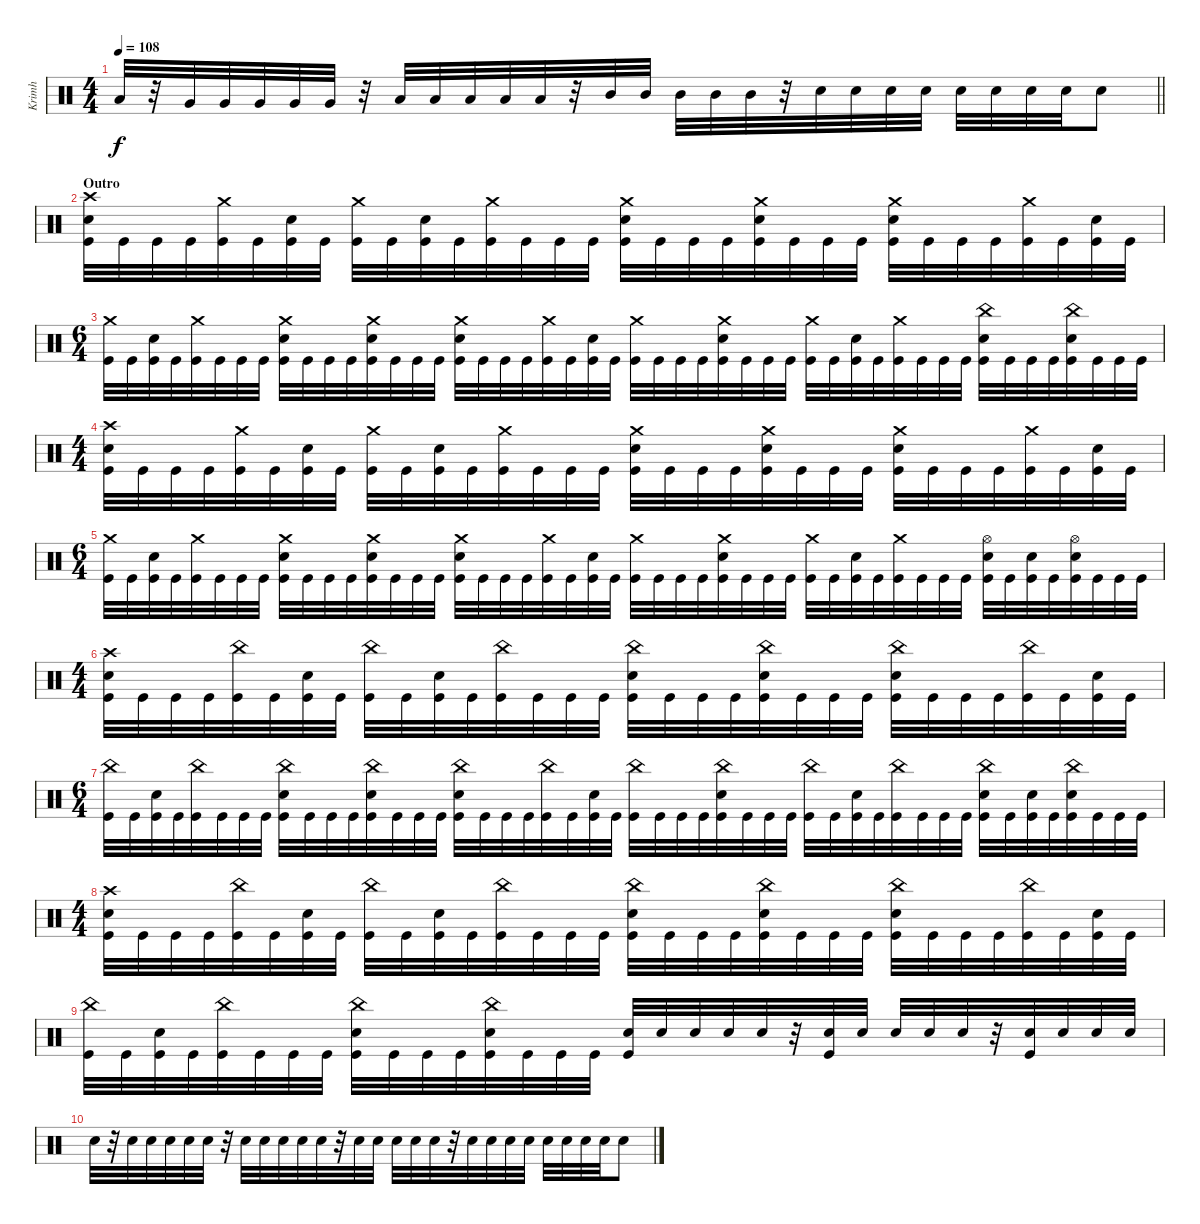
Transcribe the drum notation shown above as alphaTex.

\track ("Krimh" "Krimh") {instrument percussion}
\staff {score}
\articulation defaults
\ts (4 4)
\tempo 108
\clef neutral
\barLineRight lightlight
\ks c "Low Tom (hit)".32{dy f}
r.32 "Very Low Tom (hit)".32 "Very Low Tom (hit)".32 "Very Low Tom (hit)".32 "Very Low Tom (hit)".32 "Very Low Tom (hit)".32 r.32 "Low Tom (hit)".32 "Low Tom (hit)".32 "Low Tom (hit)".32 "Low Tom (hit)".32 "Low Tom (hit)".32 r.32 "Mid Tom (hit)".32 "Mid Tom (hit)".32 "Mid Tom (hit)".32 "Mid Tom (hit)".32 "Mid Tom (hit)".32 r.32 "Electric Snare (hit)".32 "Electric Snare (hit)".32 "Electric Snare (hit)".32 "Electric Snare (hit)".32 "Electric Snare (hit)".32 "Electric Snare (hit)".32 "Electric Snare (hit)".32 "Electric Snare (hit)".32 "Electric Snare (hit)".8 |
\section ("" "Outro")
("Crash high (hit)" "Electric Snare (hit)" "Kick (hit)").32 "Kick (hit)".32 "Kick (hit)".32 "Kick (hit)".32 ("Crash medium (hit)" "Kick (hit)").32 "Kick (hit)".32 ("Electric Snare (hit)" "Kick (hit)").32 "Kick (hit)".32 ("Crash medium (hit)" "Kick (hit)").32 "Kick (hit)".32 ("Electric Snare (hit)" "Kick (hit)").32 "Kick (hit)".32 ("Crash medium (hit)" "Kick (hit)").32 "Kick (hit)".32 "Kick (hit)".32 "Kick (hit)".32 ("Crash medium (hit)" "Electric Snare (hit)" "Kick (hit)").32 "Kick (hit)".32 "Kick (hit)".32 "Kick (hit)".32 ("Crash medium (hit)" "Electric Snare (hit)" "Kick (hit)").32 "Kick (hit)".32 "Kick (hit)".32 "Kick (hit)".32 ("Crash medium (hit)" "Electric Snare (hit)" "Kick (hit)").32 "Kick (hit)".32 "Kick (hit)".32 "Kick (hit)".32 ("Crash medium (hit)" "Kick (hit)").32 "Kick (hit)".32 ("Electric Snare (hit)" "Kick (hit)").32 "Kick (hit)".32 |
\ts (6 4)
("Crash medium (hit)" "Kick (hit)").32 "Kick (hit)".32 ("Electric Snare (hit)" "Kick (hit)").32 "Kick (hit)".32 ("Crash medium (hit)" "Kick (hit)").32 "Kick (hit)".32 "Kick (hit)".32 "Kick (hit)".32 ("Crash medium (hit)" "Electric Snare (hit)" "Kick (hit)").32 "Kick (hit)".32 "Kick (hit)".32 "Kick (hit)".32 ("Crash medium (hit)" "Electric Snare (hit)" "Kick (hit)").32 "Kick (hit)".32 "Kick (hit)".32 "Kick (hit)".32 ("Crash medium (hit)" "Electric Snare (hit)" "Kick (hit)").32 "Kick (hit)".32 "Kick (hit)".32 "Kick (hit)".32 ("Crash medium (hit)" "Kick (hit)").32 "Kick (hit)".32 ("Electric Snare (hit)" "Kick (hit)").32 "Kick (hit)".32 ("Crash medium (hit)" "Kick (hit)").32 "Kick (hit)".32 "Kick (hit)".32 "Kick (hit)".32 ("Crash medium (hit)" "Electric Snare (hit)" "Kick (hit)").32 "Kick (hit)".32 "Kick (hit)".32 "Kick (hit)".32 ("Crash medium (hit)" "Kick (hit)").32 "Kick (hit)".32 ("Electric Snare (hit)" "Kick (hit)").32 "Kick (hit)".32 ("Crash medium (hit)" "Kick (hit)").32 "Kick (hit)".32 "Kick (hit)".32 "Kick (hit)".32 ("China (hit)" "Electric Snare (hit)" "Kick (hit)").32 "Kick (hit)".32 "Kick (hit)".32 "Kick (hit)".32 ("China (hit)" "Electric Snare (hit)" "Kick (hit)").32 "Kick (hit)".32 "Kick (hit)".32 "Kick (hit)".32 |
\ts (4 4)
("Crash high (hit)" "Electric Snare (hit)" "Kick (hit)").32 "Kick (hit)".32 "Kick (hit)".32 "Kick (hit)".32 ("Crash medium (hit)" "Kick (hit)").32 "Kick (hit)".32 ("Electric Snare (hit)" "Kick (hit)").32 "Kick (hit)".32 ("Crash medium (hit)" "Kick (hit)").32 "Kick (hit)".32 ("Electric Snare (hit)" "Kick (hit)").32 "Kick (hit)".32 ("Crash medium (hit)" "Kick (hit)").32 "Kick (hit)".32 "Kick (hit)".32 "Kick (hit)".32 ("Crash medium (hit)" "Electric Snare (hit)" "Kick (hit)").32 "Kick (hit)".32 "Kick (hit)".32 "Kick (hit)".32 ("Crash medium (hit)" "Electric Snare (hit)" "Kick (hit)").32 "Kick (hit)".32 "Kick (hit)".32 "Kick (hit)".32 ("Crash medium (hit)" "Electric Snare (hit)" "Kick (hit)").32 "Kick (hit)".32 "Kick (hit)".32 "Kick (hit)".32 ("Crash medium (hit)" "Kick (hit)").32 "Kick (hit)".32 ("Electric Snare (hit)" "Kick (hit)").32 "Kick (hit)".32 |
\ts (6 4)
("Crash medium (hit)" "Kick (hit)").32 "Kick (hit)".32 ("Electric Snare (hit)" "Kick (hit)").32 "Kick (hit)".32 ("Crash medium (hit)" "Kick (hit)").32 "Kick (hit)".32 "Kick (hit)".32 "Kick (hit)".32 ("Crash medium (hit)" "Electric Snare (hit)" "Kick (hit)").32 "Kick (hit)".32 "Kick (hit)".32 "Kick (hit)".32 ("Crash medium (hit)" "Electric Snare (hit)" "Kick (hit)").32 "Kick (hit)".32 "Kick (hit)".32 "Kick (hit)".32 ("Crash medium (hit)" "Electric Snare (hit)" "Kick (hit)").32 "Kick (hit)".32 "Kick (hit)".32 "Kick (hit)".32 ("Crash medium (hit)" "Kick (hit)").32 "Kick (hit)".32 ("Electric Snare (hit)" "Kick (hit)").32 "Kick (hit)".32 ("Crash medium (hit)" "Kick (hit)").32 "Kick (hit)".32 "Kick (hit)".32 "Kick (hit)".32 ("Crash medium (hit)" "Electric Snare (hit)" "Kick (hit)").32 "Kick (hit)".32 "Kick (hit)".32 "Kick (hit)".32 ("Crash medium (hit)" "Kick (hit)").32 "Kick (hit)".32 ("Electric Snare (hit)" "Kick (hit)").32 "Kick (hit)".32 ("Crash medium (hit)" "Kick (hit)").32 "Kick (hit)".32 "Kick (hit)".32 "Kick (hit)".32 ("Hi-Hat (open)" "Electric Snare (hit)" "Kick (hit)").32 "Kick (hit)".32 ("Electric Snare (hit)" "Kick (hit)").32 "Kick (hit)".32 ("Hi-Hat (open)" "Electric Snare (hit)" "Kick (hit)").32 "Kick (hit)".32 "Kick (hit)".32 "Kick (hit)".32 |
\ts (4 4)
("Crash high (hit)" "Electric Snare (hit)" "Kick (hit)").32 "Kick (hit)".32 "Kick (hit)".32 "Kick (hit)".32 ("China (hit)" "Kick (hit)").32 "Kick (hit)".32 ("Electric Snare (hit)" "Kick (hit)").32 "Kick (hit)".32 ("China (hit)" "Kick (hit)").32 "Kick (hit)".32 ("Electric Snare (hit)" "Kick (hit)").32 "Kick (hit)".32 ("China (hit)" "Kick (hit)").32 "Kick (hit)".32 "Kick (hit)".32 "Kick (hit)".32 ("China (hit)" "Electric Snare (hit)" "Kick (hit)").32 "Kick (hit)".32 "Kick (hit)".32 "Kick (hit)".32 ("China (hit)" "Electric Snare (hit)" "Kick (hit)").32 "Kick (hit)".32 "Kick (hit)".32 "Kick (hit)".32 ("China (hit)" "Electric Snare (hit)" "Kick (hit)").32 "Kick (hit)".32 "Kick (hit)".32 "Kick (hit)".32 ("China (hit)" "Kick (hit)").32 "Kick (hit)".32 ("Electric Snare (hit)" "Kick (hit)").32 "Kick (hit)".32 |
\ts (6 4)
("China (hit)" "Kick (hit)").32 "Kick (hit)".32 ("Electric Snare (hit)" "Kick (hit)").32 "Kick (hit)".32 ("China (hit)" "Kick (hit)").32 "Kick (hit)".32 "Kick (hit)".32 "Kick (hit)".32 ("China (hit)" "Electric Snare (hit)" "Kick (hit)").32 "Kick (hit)".32 "Kick (hit)".32 "Kick (hit)".32 ("China (hit)" "Electric Snare (hit)" "Kick (hit)").32 "Kick (hit)".32 "Kick (hit)".32 "Kick (hit)".32 ("China (hit)" "Electric Snare (hit)" "Kick (hit)").32 "Kick (hit)".32 "Kick (hit)".32 "Kick (hit)".32 ("China (hit)" "Kick (hit)").32 "Kick (hit)".32 ("Electric Snare (hit)" "Kick (hit)").32 "Kick (hit)".32 ("China (hit)" "Kick (hit)").32 "Kick (hit)".32 "Kick (hit)".32 "Kick (hit)".32 ("China (hit)" "Electric Snare (hit)" "Kick (hit)").32 "Kick (hit)".32 "Kick (hit)".32 "Kick (hit)".32 ("China (hit)" "Kick (hit)").32 "Kick (hit)".32 ("Electric Snare (hit)" "Kick (hit)").32 "Kick (hit)".32 ("China (hit)" "Kick (hit)").32 "Kick (hit)".32 "Kick (hit)".32 "Kick (hit)".32 ("China (hit)" "Electric Snare (hit)" "Kick (hit)").32 "Kick (hit)".32 ("Electric Snare (hit)" "Kick (hit)").32 "Kick (hit)".32 ("China (hit)" "Electric Snare (hit)" "Kick (hit)").32 "Kick (hit)".32 "Kick (hit)".32 "Kick (hit)".32 |
\ts (4 4)
("Crash high (hit)" "Electric Snare (hit)" "Kick (hit)").32 "Kick (hit)".32 "Kick (hit)".32 "Kick (hit)".32 ("China (hit)" "Kick (hit)").32 "Kick (hit)".32 ("Electric Snare (hit)" "Kick (hit)").32 "Kick (hit)".32 ("China (hit)" "Kick (hit)").32 "Kick (hit)".32 ("Electric Snare (hit)" "Kick (hit)").32 "Kick (hit)".32 ("China (hit)" "Kick (hit)").32 "Kick (hit)".32 "Kick (hit)".32 "Kick (hit)".32 ("China (hit)" "Electric Snare (hit)" "Kick (hit)").32 "Kick (hit)".32 "Kick (hit)".32 "Kick (hit)".32 ("China (hit)" "Electric Snare (hit)" "Kick (hit)").32 "Kick (hit)".32 "Kick (hit)".32 "Kick (hit)".32 ("China (hit)" "Electric Snare (hit)" "Kick (hit)").32 "Kick (hit)".32 "Kick (hit)".32 "Kick (hit)".32 ("China (hit)" "Kick (hit)").32 "Kick (hit)".32 ("Electric Snare (hit)" "Kick (hit)").32 "Kick (hit)".32 |
("China (hit)" "Kick (hit)").32 "Kick (hit)".32 ("Electric Snare (hit)" "Kick (hit)").32 "Kick (hit)".32 ("China (hit)" "Kick (hit)").32 "Kick (hit)".32 "Kick (hit)".32 "Kick (hit)".32 ("China (hit)" "Electric Snare (hit)" "Kick (hit)").32 "Kick (hit)".32 "Kick (hit)".32 "Kick (hit)".32 ("China (hit)" "Electric Snare (hit)" "Kick (hit)").32 "Kick (hit)".32 "Kick (hit)".32 "Kick (hit)".32 ("Electric Snare (hit)" "Kick (hit)").32 "Electric Snare (hit)".32 "Electric Snare (hit)".32 "Electric Snare (hit)".32 "Electric Snare (hit)".32 r.32 ("Electric Snare (hit)" "Kick (hit)").32 "Electric Snare (hit)".32 "Electric Snare (hit)".32 "Electric Snare (hit)".32 "Electric Snare (hit)".32 r.32 ("Electric Snare (hit)" "Kick (hit)").32 "Electric Snare (hit)".32 "Electric Snare (hit)".32 "Electric Snare (hit)".32 |
"Electric Snare (hit)".32 r.32 "Electric Snare (hit)".32 "Electric Snare (hit)".32 "Electric Snare (hit)".32 "Electric Snare (hit)".32 "Electric Snare (hit)".32 r.32 "Electric Snare (hit)".32 "Electric Snare (hit)".32 "Electric Snare (hit)".32 "Electric Snare (hit)".32 "Electric Snare (hit)".32 r.32 "Electric Snare (hit)".32 "Electric Snare (hit)".32 "Electric Snare (hit)".32 "Electric Snare (hit)".32 "Electric Snare (hit)".32 r.32 "Electric Snare (hit)".32 "Electric Snare (hit)".32 "Electric Snare (hit)".32 "Electric Snare (hit)".32 "Electric Snare (hit)".32 "Electric Snare (hit)".32 "Electric Snare (hit)".32 "Electric Snare (hit)".32 "Electric Snare (hit)".8
